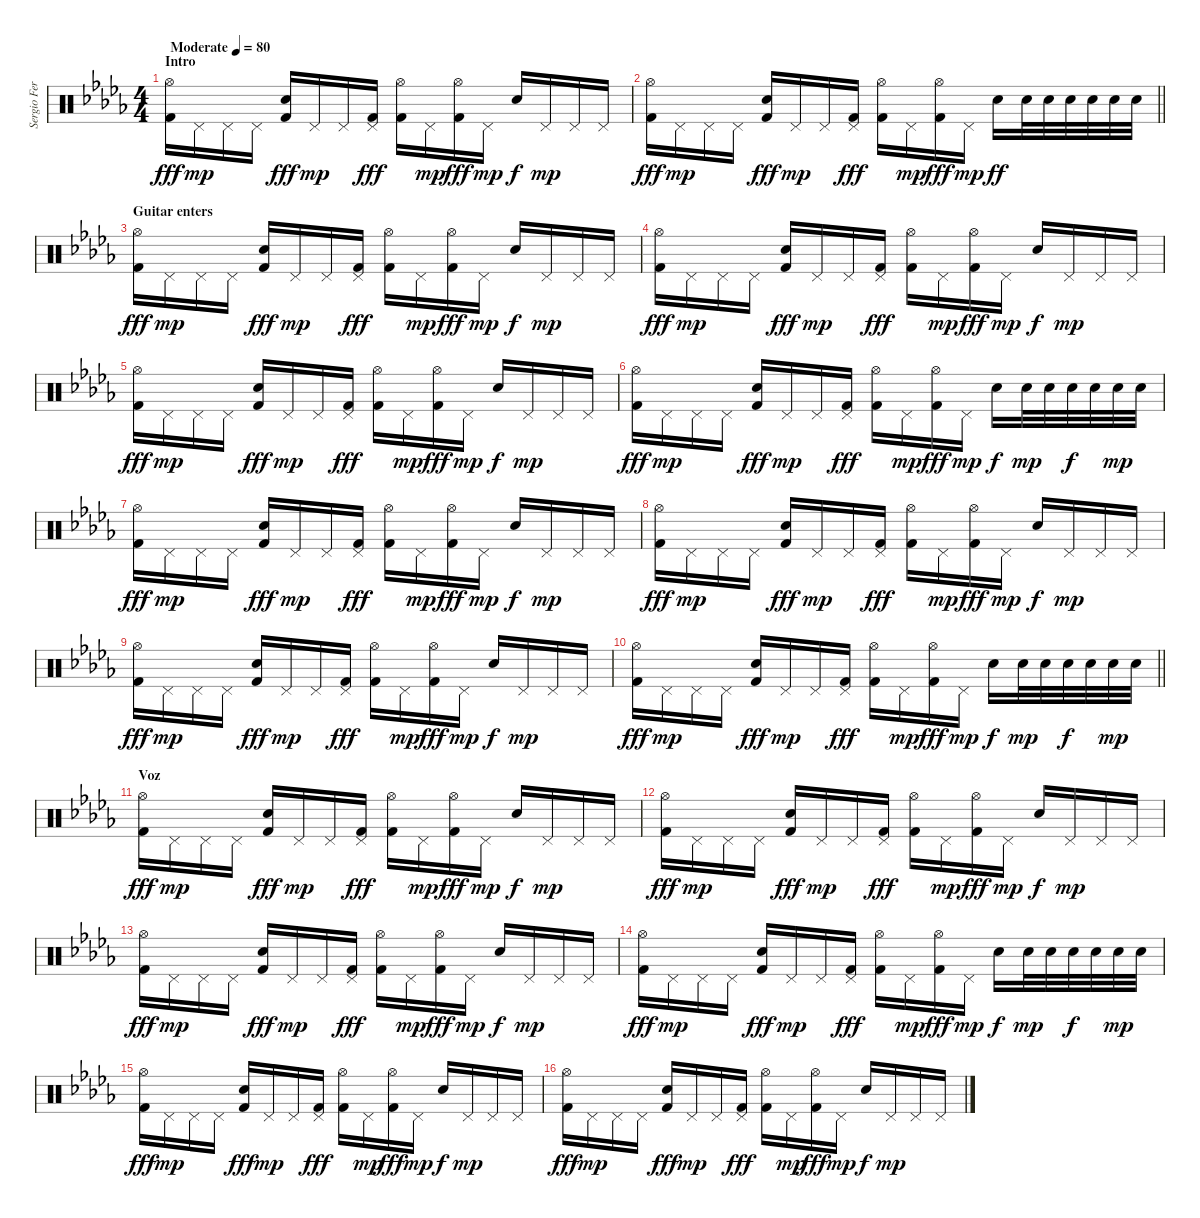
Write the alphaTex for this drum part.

\track ("Sergio Fernandez \"Taz\"" "Sergio Fer") {instrument percussion}
\staff {score}
\articulation defaults
\ts (4 4)
\section ("" "Intro")
\tempo (80 "Moderate")
\clef neutral
\ks bbminor
("Hi-Hat (open)" "Kick (hit) 2").16{dy fff} "Pedal Hi-Hat (hit)".16{dy mp} "Pedal Hi-Hat (hit)".16 "Pedal Hi-Hat (hit)".16 ("Electric Snare (hit)" "Kick (hit) 2").16{dy fff} "Pedal Hi-Hat (hit)".16{dy mp} "Pedal Hi-Hat (hit)".16 ("Pedal Hi-Hat (hit)" "Kick (hit) 2").16{dy fff} ("Hi-Hat (open)" "Kick (hit) 2").16 "Pedal Hi-Hat (hit)".16{dy mp} ("Hi-Hat (open)" "Kick (hit) 2").16{dy fff} "Pedal Hi-Hat (hit)".16{dy mp} "Electric Snare (hit)".16{dy f} "Pedal Hi-Hat (hit)".16{dy mp} "Pedal Hi-Hat (hit)".16 "Pedal Hi-Hat (hit)".16 |
\barLineRight lightlight
("Hi-Hat (open)" "Kick (hit) 2").16{dy fff} "Pedal Hi-Hat (hit)".16{dy mp} "Pedal Hi-Hat (hit)".16 "Pedal Hi-Hat (hit)".16 ("Electric Snare (hit)" "Kick (hit) 2").16{dy fff} "Pedal Hi-Hat (hit)".16{dy mp} "Pedal Hi-Hat (hit)".16 ("Pedal Hi-Hat (hit)" "Kick (hit) 2").16{dy fff} ("Hi-Hat (open)" "Kick (hit) 2").16 "Pedal Hi-Hat (hit)".16{dy mp} ("Hi-Hat (open)" "Kick (hit) 2").16{dy fff} "Pedal Hi-Hat (hit)".16{dy mp} "Snare (hit) 2".16{dy ff} "Snare (hit) 2".32 "Snare (hit) 2".32 "Snare (hit) 2".32 "Snare (hit) 2".32 "Snare (hit) 2".32 "Snare (hit) 2".32 |
\section ("" "Guitar enters")
("Hi-Hat (open)" "Kick (hit) 2").16{dy fff} "Pedal Hi-Hat (hit)".16{dy mp} "Pedal Hi-Hat (hit)".16 "Pedal Hi-Hat (hit)".16 ("Electric Snare (hit)" "Kick (hit) 2").16{dy fff} "Pedal Hi-Hat (hit)".16{dy mp} "Pedal Hi-Hat (hit)".16 ("Pedal Hi-Hat (hit)" "Kick (hit) 2").16{dy fff} ("Hi-Hat (open)" "Kick (hit) 2").16 "Pedal Hi-Hat (hit)".16{dy mp} ("Hi-Hat (open)" "Kick (hit) 2").16{dy fff} "Pedal Hi-Hat (hit)".16{dy mp} "Electric Snare (hit)".16{dy f} "Pedal Hi-Hat (hit)".16{dy mp} "Pedal Hi-Hat (hit)".16 "Pedal Hi-Hat (hit)".16 |
("Hi-Hat (open)" "Kick (hit) 2").16{dy fff} "Pedal Hi-Hat (hit)".16{dy mp} "Pedal Hi-Hat (hit)".16 "Pedal Hi-Hat (hit)".16 ("Electric Snare (hit)" "Kick (hit) 2").16{dy fff} "Pedal Hi-Hat (hit)".16{dy mp} "Pedal Hi-Hat (hit)".16 ("Pedal Hi-Hat (hit)" "Kick (hit) 2").16{dy fff} ("Hi-Hat (open)" "Kick (hit) 2").16 "Pedal Hi-Hat (hit)".16{dy mp} ("Hi-Hat (open)" "Kick (hit) 2").16{dy fff} "Pedal Hi-Hat (hit)".16{dy mp} "Electric Snare (hit)".16{dy f} "Pedal Hi-Hat (hit)".16{dy mp} "Pedal Hi-Hat (hit)".16 "Pedal Hi-Hat (hit)".16 |
("Hi-Hat (open)" "Kick (hit) 2").16{dy fff} "Pedal Hi-Hat (hit)".16{dy mp} "Pedal Hi-Hat (hit)".16 "Pedal Hi-Hat (hit)".16 ("Electric Snare (hit)" "Kick (hit) 2").16{dy fff} "Pedal Hi-Hat (hit)".16{dy mp} "Pedal Hi-Hat (hit)".16 ("Pedal Hi-Hat (hit)" "Kick (hit) 2").16{dy fff} ("Hi-Hat (open)" "Kick (hit) 2").16 "Pedal Hi-Hat (hit)".16{dy mp} ("Hi-Hat (open)" "Kick (hit) 2").16{dy fff} "Pedal Hi-Hat (hit)".16{dy mp} "Electric Snare (hit)".16{dy f} "Pedal Hi-Hat (hit)".16{dy mp} "Pedal Hi-Hat (hit)".16 "Pedal Hi-Hat (hit)".16 |
("Hi-Hat (open)" "Kick (hit) 2").16{dy fff} "Pedal Hi-Hat (hit)".16{dy mp} "Pedal Hi-Hat (hit)".16 "Pedal Hi-Hat (hit)".16 ("Electric Snare (hit)" "Kick (hit) 2").16{dy fff} "Pedal Hi-Hat (hit)".16{dy mp} "Pedal Hi-Hat (hit)".16 ("Pedal Hi-Hat (hit)" "Kick (hit) 2").16{dy fff} ("Hi-Hat (open)" "Kick (hit) 2").16 "Pedal Hi-Hat (hit)".16{dy mp} ("Hi-Hat (open)" "Kick (hit) 2").16{dy fff} "Pedal Hi-Hat (hit)".16{dy mp} "Snare (hit) 2".16{dy f} "Snare (hit) 2".32{dy mp} "Snare (hit) 2".32 "Snare (hit) 2".32{dy f} "Snare (hit) 2".32 "Snare (hit) 2".32{dy mp} "Snare (hit) 2".32 |
("Hi-Hat (open)" "Kick (hit) 2").16{dy fff} "Pedal Hi-Hat (hit)".16{dy mp} "Pedal Hi-Hat (hit)".16 "Pedal Hi-Hat (hit)".16 ("Electric Snare (hit)" "Kick (hit) 2").16{dy fff} "Pedal Hi-Hat (hit)".16{dy mp} "Pedal Hi-Hat (hit)".16 ("Pedal Hi-Hat (hit)" "Kick (hit) 2").16{dy fff} ("Hi-Hat (open)" "Kick (hit) 2").16 "Pedal Hi-Hat (hit)".16{dy mp} ("Hi-Hat (open)" "Kick (hit) 2").16{dy fff} "Pedal Hi-Hat (hit)".16{dy mp} "Electric Snare (hit)".16{dy f} "Pedal Hi-Hat (hit)".16{dy mp} "Pedal Hi-Hat (hit)".16 "Pedal Hi-Hat (hit)".16 |
("Hi-Hat (open)" "Kick (hit) 2").16{dy fff} "Pedal Hi-Hat (hit)".16{dy mp} "Pedal Hi-Hat (hit)".16 "Pedal Hi-Hat (hit)".16 ("Electric Snare (hit)" "Kick (hit) 2").16{dy fff} "Pedal Hi-Hat (hit)".16{dy mp} "Pedal Hi-Hat (hit)".16 ("Pedal Hi-Hat (hit)" "Kick (hit) 2").16{dy fff} ("Hi-Hat (open)" "Kick (hit) 2").16 "Pedal Hi-Hat (hit)".16{dy mp} ("Hi-Hat (open)" "Kick (hit) 2").16{dy fff} "Pedal Hi-Hat (hit)".16{dy mp} "Electric Snare (hit)".16{dy f} "Pedal Hi-Hat (hit)".16{dy mp} "Pedal Hi-Hat (hit)".16 "Pedal Hi-Hat (hit)".16 |
("Hi-Hat (open)" "Kick (hit) 2").16{dy fff} "Pedal Hi-Hat (hit)".16{dy mp} "Pedal Hi-Hat (hit)".16 "Pedal Hi-Hat (hit)".16 ("Electric Snare (hit)" "Kick (hit) 2").16{dy fff} "Pedal Hi-Hat (hit)".16{dy mp} "Pedal Hi-Hat (hit)".16 ("Pedal Hi-Hat (hit)" "Kick (hit) 2").16{dy fff} ("Hi-Hat (open)" "Kick (hit) 2").16 "Pedal Hi-Hat (hit)".16{dy mp} ("Hi-Hat (open)" "Kick (hit) 2").16{dy fff} "Pedal Hi-Hat (hit)".16{dy mp} "Electric Snare (hit)".16{dy f} "Pedal Hi-Hat (hit)".16{dy mp} "Pedal Hi-Hat (hit)".16 "Pedal Hi-Hat (hit)".16 |
\barLineRight lightlight
("Hi-Hat (open)" "Kick (hit) 2").16{dy fff} "Pedal Hi-Hat (hit)".16{dy mp} "Pedal Hi-Hat (hit)".16 "Pedal Hi-Hat (hit)".16 ("Electric Snare (hit)" "Kick (hit) 2").16{dy fff} "Pedal Hi-Hat (hit)".16{dy mp} "Pedal Hi-Hat (hit)".16 ("Pedal Hi-Hat (hit)" "Kick (hit) 2").16{dy fff} ("Hi-Hat (open)" "Kick (hit) 2").16 "Pedal Hi-Hat (hit)".16{dy mp} ("Hi-Hat (open)" "Kick (hit) 2").16{dy fff} "Pedal Hi-Hat (hit)".16{dy mp} "Snare (hit) 2".16{dy f} "Snare (hit) 2".32{dy mp} "Snare (hit) 2".32 "Snare (hit) 2".32{dy f} "Snare (hit) 2".32 "Snare (hit) 2".32{dy mp} "Snare (hit) 2".32 |
\section ("" "Voz")
("Hi-Hat (open)" "Kick (hit) 2").16{dy fff} "Pedal Hi-Hat (hit)".16{dy mp} "Pedal Hi-Hat (hit)".16 "Pedal Hi-Hat (hit)".16 ("Electric Snare (hit)" "Kick (hit) 2").16{dy fff} "Pedal Hi-Hat (hit)".16{dy mp} "Pedal Hi-Hat (hit)".16 ("Pedal Hi-Hat (hit)" "Kick (hit) 2").16{dy fff} ("Hi-Hat (open)" "Kick (hit) 2").16 "Pedal Hi-Hat (hit)".16{dy mp} ("Hi-Hat (open)" "Kick (hit) 2").16{dy fff} "Pedal Hi-Hat (hit)".16{dy mp} "Electric Snare (hit)".16{dy f} "Pedal Hi-Hat (hit)".16{dy mp} "Pedal Hi-Hat (hit)".16 "Pedal Hi-Hat (hit)".16 |
("Hi-Hat (open)" "Kick (hit) 2").16{dy fff} "Pedal Hi-Hat (hit)".16{dy mp} "Pedal Hi-Hat (hit)".16 "Pedal Hi-Hat (hit)".16 ("Electric Snare (hit)" "Kick (hit) 2").16{dy fff} "Pedal Hi-Hat (hit)".16{dy mp} "Pedal Hi-Hat (hit)".16 ("Pedal Hi-Hat (hit)" "Kick (hit) 2").16{dy fff} ("Hi-Hat (open)" "Kick (hit) 2").16 "Pedal Hi-Hat (hit)".16{dy mp} ("Hi-Hat (open)" "Kick (hit) 2").16{dy fff} "Pedal Hi-Hat (hit)".16{dy mp} "Electric Snare (hit)".16{dy f} "Pedal Hi-Hat (hit)".16{dy mp} "Pedal Hi-Hat (hit)".16 "Pedal Hi-Hat (hit)".16 |
("Hi-Hat (open)" "Kick (hit) 2").16{dy fff} "Pedal Hi-Hat (hit)".16{dy mp} "Pedal Hi-Hat (hit)".16 "Pedal Hi-Hat (hit)".16 ("Electric Snare (hit)" "Kick (hit) 2").16{dy fff} "Pedal Hi-Hat (hit)".16{dy mp} "Pedal Hi-Hat (hit)".16 ("Pedal Hi-Hat (hit)" "Kick (hit) 2").16{dy fff} ("Hi-Hat (open)" "Kick (hit) 2").16 "Pedal Hi-Hat (hit)".16{dy mp} ("Hi-Hat (open)" "Kick (hit) 2").16{dy fff} "Pedal Hi-Hat (hit)".16{dy mp} "Electric Snare (hit)".16{dy f} "Pedal Hi-Hat (hit)".16{dy mp} "Pedal Hi-Hat (hit)".16 "Pedal Hi-Hat (hit)".16 |
("Hi-Hat (open)" "Kick (hit) 2").16{dy fff} "Pedal Hi-Hat (hit)".16{dy mp} "Pedal Hi-Hat (hit)".16 "Pedal Hi-Hat (hit)".16 ("Electric Snare (hit)" "Kick (hit) 2").16{dy fff} "Pedal Hi-Hat (hit)".16{dy mp} "Pedal Hi-Hat (hit)".16 ("Pedal Hi-Hat (hit)" "Kick (hit) 2").16{dy fff} ("Hi-Hat (open)" "Kick (hit) 2").16 "Pedal Hi-Hat (hit)".16{dy mp} ("Hi-Hat (open)" "Kick (hit) 2").16{dy fff} "Pedal Hi-Hat (hit)".16{dy mp} "Snare (hit) 2".16{dy f} "Snare (hit) 2".32{dy mp} "Snare (hit) 2".32 "Snare (hit) 2".32{dy f} "Snare (hit) 2".32 "Snare (hit) 2".32{dy mp} "Snare (hit) 2".32 |
("Hi-Hat (open)" "Kick (hit) 2").16{dy fff} "Pedal Hi-Hat (hit)".16{dy mp} "Pedal Hi-Hat (hit)".16 "Pedal Hi-Hat (hit)".16 ("Electric Snare (hit)" "Kick (hit) 2").16{dy fff} "Pedal Hi-Hat (hit)".16{dy mp} "Pedal Hi-Hat (hit)".16 ("Pedal Hi-Hat (hit)" "Kick (hit) 2").16{dy fff} ("Hi-Hat (open)" "Kick (hit) 2").16 "Pedal Hi-Hat (hit)".16{dy mp} ("Hi-Hat (open)" "Kick (hit) 2").16{dy fff} "Pedal Hi-Hat (hit)".16{dy mp} "Electric Snare (hit)".16{dy f} "Pedal Hi-Hat (hit)".16{dy mp} "Pedal Hi-Hat (hit)".16 "Pedal Hi-Hat (hit)".16 |
("Hi-Hat (open)" "Kick (hit) 2").16{dy fff} "Pedal Hi-Hat (hit)".16{dy mp} "Pedal Hi-Hat (hit)".16 "Pedal Hi-Hat (hit)".16 ("Electric Snare (hit)" "Kick (hit) 2").16{dy fff} "Pedal Hi-Hat (hit)".16{dy mp} "Pedal Hi-Hat (hit)".16 ("Pedal Hi-Hat (hit)" "Kick (hit) 2").16{dy fff} ("Hi-Hat (open)" "Kick (hit) 2").16 "Pedal Hi-Hat (hit)".16{dy mp} ("Hi-Hat (open)" "Kick (hit) 2").16{dy fff} "Pedal Hi-Hat (hit)".16{dy mp} "Electric Snare (hit)".16{dy f} "Pedal Hi-Hat (hit)".16{dy mp} "Pedal Hi-Hat (hit)".16 "Pedal Hi-Hat (hit)".16
